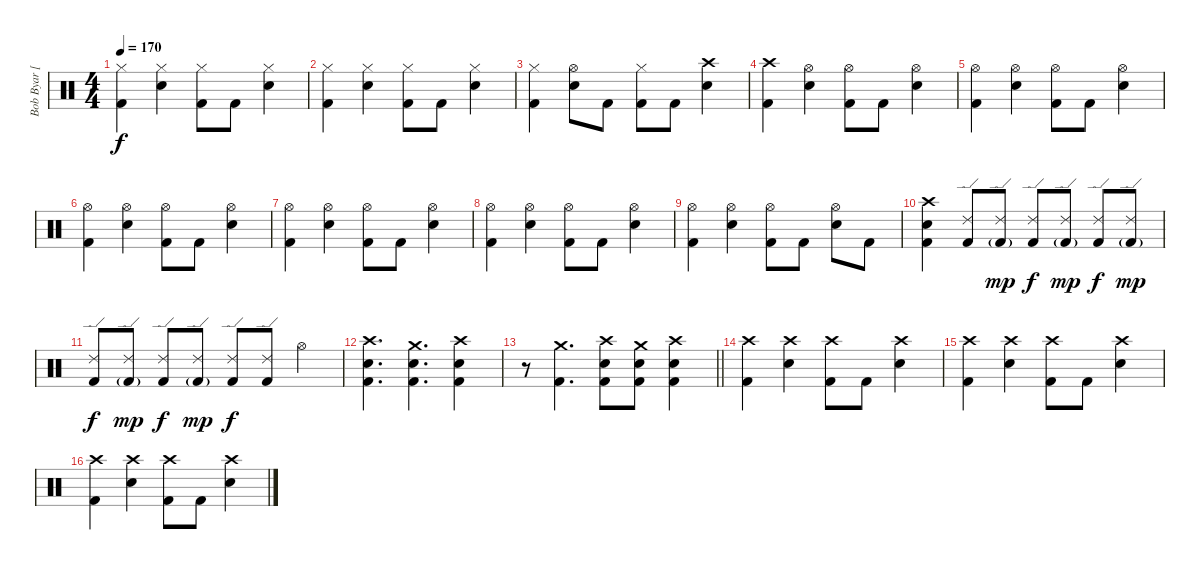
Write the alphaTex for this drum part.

\track ("Bob Byar [Drums]" "Bob Byar [") {instrument percussion}
\staff {score}
\articulation defaults
\ts (4 4)
\tempo 170
\clef neutral
\ks c
("Hi-Hat (closed)" "Kick (hit) 2").4{dy f} ("Hi-Hat (closed)" "Electric Snare (hit)").4 ("Hi-Hat (closed)" "Kick (hit) 2").8 "Kick (hit) 2".8 ("Hi-Hat (closed)" "Electric Snare (hit)").4 |
("Hi-Hat (closed)" "Kick (hit) 2").4 ("Hi-Hat (closed)" "Electric Snare (hit)").4 ("Hi-Hat (closed)" "Kick (hit) 2").8 "Kick (hit) 2".8 ("Hi-Hat (closed)" "Electric Snare (hit)").4 |
("Hi-Hat (closed)" "Kick (hit) 2").4 ("Hi-Hat (open)" "Electric Snare (hit)").8 "Kick (hit) 2".8 ("Hi-Hat (closed)" "Kick (hit) 2").8 "Kick (hit) 2".8 ("Crash high (hit)" "Electric Snare (hit)").4 |
("Crash high (hit)" "Kick (hit) 2").4 ("Hi-Hat (open)" "Electric Snare (hit)").4 ("Hi-Hat (open)" "Kick (hit) 2").8 "Kick (hit) 2".8 ("Hi-Hat (open)" "Electric Snare (hit)").4 |
("Hi-Hat (open)" "Kick (hit) 2").4 ("Hi-Hat (open)" "Electric Snare (hit)").4 ("Hi-Hat (open)" "Kick (hit) 2").8 "Kick (hit) 2".8 ("Hi-Hat (open)" "Electric Snare (hit)").4 |
("Hi-Hat (open)" "Kick (hit) 2").4 ("Hi-Hat (open)" "Electric Snare (hit)").4 ("Hi-Hat (open)" "Kick (hit) 2").8 "Kick (hit) 2".8 ("Hi-Hat (open)" "Electric Snare (hit)").4 |
("Hi-Hat (open)" "Kick (hit) 2").4 ("Hi-Hat (open)" "Electric Snare (hit)").4 ("Hi-Hat (open)" "Kick (hit) 2").8 "Kick (hit) 2".8 ("Hi-Hat (open)" "Electric Snare (hit)").4 |
("Hi-Hat (open)" "Kick (hit) 2").4 ("Hi-Hat (open)" "Electric Snare (hit)").4 ("Hi-Hat (open)" "Kick (hit) 2").8 "Kick (hit) 2".8 ("Hi-Hat (open)" "Electric Snare (hit)").4 |
("Hi-Hat (open)" "Kick (hit) 2").4 ("Hi-Hat (open)" "Electric Snare (hit)").4 ("Hi-Hat (open)" "Kick (hit) 2").8 "Kick (hit) 2".8 ("Hi-Hat (open)" "Electric Snare (hit)").8 "Kick (hit) 2".8 |
("Crash high (hit)" "Electric Snare (hit)" "Kick (hit) 2").4 ("Ride (edge) 2" "Kick (hit) 2").8{volume 8} ("Ride (edge) 2" "Kick (hit) 2"{g}).8{dy mp volume 15} ("Ride (edge) 2" "Kick (hit) 2").8{dy f} ("Ride (edge) 2" "Kick (hit) 2"{g}).8{dy mp} ("Ride (edge) 2" "Kick (hit) 2").8{dy f} ("Ride (edge) 2" "Kick (hit) 2"{g}).8{dy mp} |
("Ride (edge) 2" "Kick (hit) 2").8{dy f} ("Ride (edge) 2" "Kick (hit) 2"{g}).8{dy mp} ("Ride (edge) 2" "Kick (hit) 2").8{dy f} ("Ride (edge) 2" "Kick (hit) 2"{g}).8{dy mp} ("Ride (edge) 2" "Kick (hit) 2").8{dy f} ("Ride (edge) 2" "Kick (hit) 2").8 "Hi-Hat (open)".4 |
("Crash high (hit)" "Electric Snare (hit)" "Kick (hit) 2").4{d} ("Crash medium (hit)" "Electric Snare (hit)" "Kick (hit) 2").4{d} ("Crash high (hit)" "Electric Snare (hit)" "Kick (hit) 2").4 |
\barLineRight lightlight
r.8 ("Crash medium (hit)" "Kick (hit) 2").4{d} ("Crash high (hit)" "Electric Snare (hit)" "Kick (hit) 2").8 ("Crash medium (hit)" "Electric Snare (hit)" "Kick (hit) 2").8 ("Crash high (hit)" "Electric Snare (hit)" "Kick (hit) 2").4 |
("Crash high (hit)" "Kick (hit) 2").4 ("Crash high (hit)" "Electric Snare (hit)").4 ("Crash high (hit)" "Kick (hit) 2").8 "Kick (hit) 2".8 ("Crash high (hit)" "Electric Snare (hit)").4 |
("Crash high (hit)" "Kick (hit) 2").4 ("Crash high (hit)" "Electric Snare (hit)").4 ("Crash high (hit)" "Kick (hit) 2").8 "Kick (hit) 2".8 ("Crash high (hit)" "Electric Snare (hit)").4 |
("Crash high (hit)" "Kick (hit) 2").4 ("Crash high (hit)" "Electric Snare (hit)").4 ("Crash high (hit)" "Kick (hit) 2").8 "Kick (hit) 2".8 ("Crash high (hit)" "Electric Snare (hit)").4
